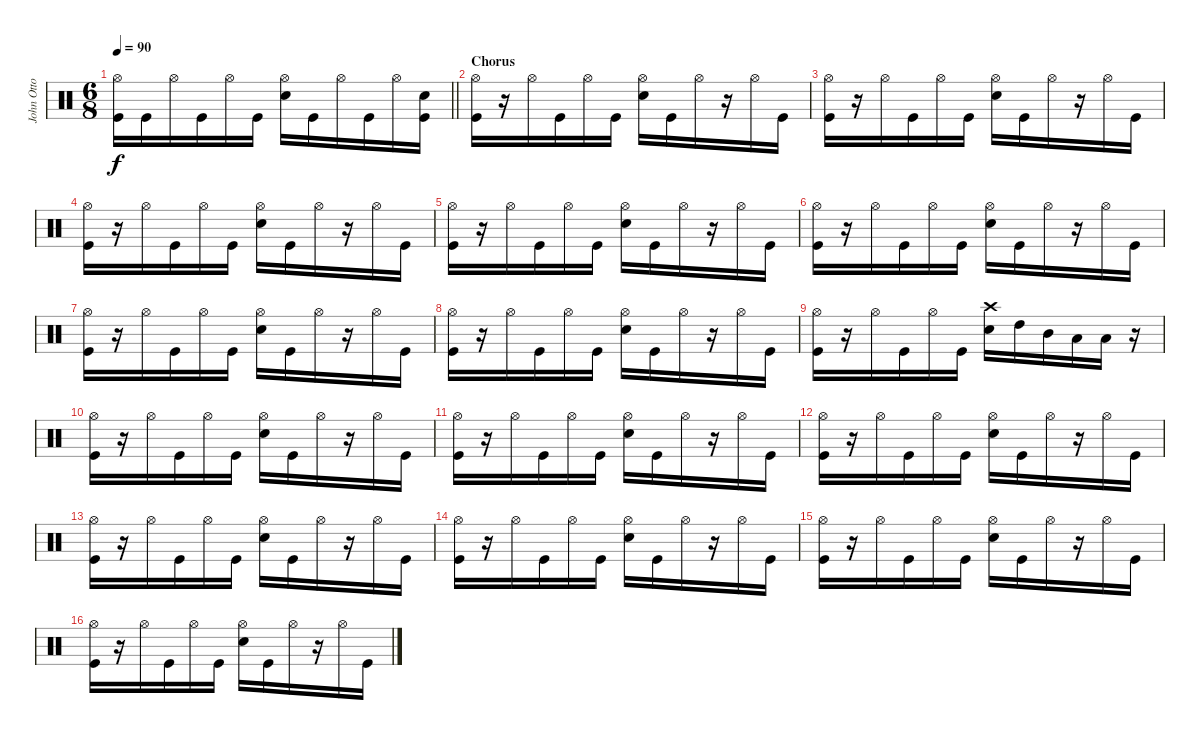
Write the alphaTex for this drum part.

\track ("John Otto" "John Otto") {instrument percussion}
\staff {score}
\articulation defaults
\ts (6 8)
\tempo 90
\clef neutral
\barLineRight lightlight
\ks c
("Hi-Hat (open)" "Kick (hit)").16{dy f} "Kick (hit)".16 "Hi-Hat (open)".16 "Kick (hit)".16 "Hi-Hat (open)".16 "Kick (hit)".16 ("Hi-Hat (open)" "Electric Snare (hit)").16 "Kick (hit)".16 "Hi-Hat (open)".16 "Kick (hit)".16 "Hi-Hat (open)".16 ("Electric Snare (hit)" "Kick (hit)").16 |
\section ("" "Chorus")
("Hi-Hat (open)" "Kick (hit)").16 r.16 "Hi-Hat (open)".16 "Kick (hit)".16 "Hi-Hat (open)".16 "Kick (hit)".16 ("Hi-Hat (open)" "Electric Snare (hit)").16 "Kick (hit)".16 "Hi-Hat (open)".16 r.16 "Hi-Hat (open)".16 "Kick (hit)".16 |
("Hi-Hat (open)" "Kick (hit)").16 r.16 "Hi-Hat (open)".16 "Kick (hit)".16 "Hi-Hat (open)".16 "Kick (hit)".16 ("Hi-Hat (open)" "Electric Snare (hit)").16 "Kick (hit)".16 "Hi-Hat (open)".16 r.16 "Hi-Hat (open)".16 "Kick (hit)".16 |
("Hi-Hat (open)" "Kick (hit)").16 r.16 "Hi-Hat (open)".16 "Kick (hit)".16 "Hi-Hat (open)".16 "Kick (hit)".16 ("Hi-Hat (open)" "Electric Snare (hit)").16 "Kick (hit)".16 "Hi-Hat (open)".16 r.16 "Hi-Hat (open)".16 "Kick (hit)".16 |
("Hi-Hat (open)" "Kick (hit)").16 r.16 "Hi-Hat (open)".16 "Kick (hit)".16 "Hi-Hat (open)".16 "Kick (hit)".16 ("Hi-Hat (open)" "Electric Snare (hit)").16 "Kick (hit)".16 "Hi-Hat (open)".16 r.16 "Hi-Hat (open)".16 "Kick (hit)".16 |
("Hi-Hat (open)" "Kick (hit)").16 r.16 "Hi-Hat (open)".16 "Kick (hit)".16 "Hi-Hat (open)".16 "Kick (hit)".16 ("Hi-Hat (open)" "Electric Snare (hit)").16 "Kick (hit)".16 "Hi-Hat (open)".16 r.16 "Hi-Hat (open)".16 "Kick (hit)".16 |
("Hi-Hat (open)" "Kick (hit)").16 r.16 "Hi-Hat (open)".16 "Kick (hit)".16 "Hi-Hat (open)".16 "Kick (hit)".16 ("Hi-Hat (open)" "Electric Snare (hit)").16 "Kick (hit)".16 "Hi-Hat (open)".16 r.16 "Hi-Hat (open)".16 "Kick (hit)".16 |
("Hi-Hat (open)" "Kick (hit)").16 r.16 "Hi-Hat (open)".16 "Kick (hit)".16 "Hi-Hat (open)".16 "Kick (hit)".16 ("Hi-Hat (open)" "Electric Snare (hit)").16 "Kick (hit)".16 "Hi-Hat (open)".16 r.16 "Hi-Hat (open)".16 "Kick (hit)".16 |
("Hi-Hat (open)" "Kick (hit)").16 r.16 "Hi-Hat (open)".16 "Kick (hit)".16 "Hi-Hat (open)".16 "Kick (hit)".16 ("Crash high (hit)" "Electric Snare (hit)").16 "High Tom (hit)".16 "Mid Tom (hit)".16 "Low Tom (hit)".16 "Low Floor Tom (hit)".16 r.16 |
("Hi-Hat (open)" "Kick (hit)").16 r.16 "Hi-Hat (open)".16 "Kick (hit)".16 "Hi-Hat (open)".16 "Kick (hit)".16 ("Hi-Hat (open)" "Electric Snare (hit)").16 "Kick (hit)".16 "Hi-Hat (open)".16 r.16 "Hi-Hat (open)".16 "Kick (hit)".16 |
("Hi-Hat (open)" "Kick (hit)").16 r.16 "Hi-Hat (open)".16 "Kick (hit)".16 "Hi-Hat (open)".16 "Kick (hit)".16 ("Hi-Hat (open)" "Electric Snare (hit)").16 "Kick (hit)".16 "Hi-Hat (open)".16 r.16 "Hi-Hat (open)".16 "Kick (hit)".16 |
("Hi-Hat (open)" "Kick (hit)").16 r.16 "Hi-Hat (open)".16 "Kick (hit)".16 "Hi-Hat (open)".16 "Kick (hit)".16 ("Hi-Hat (open)" "Electric Snare (hit)").16 "Kick (hit)".16 "Hi-Hat (open)".16 r.16 "Hi-Hat (open)".16 "Kick (hit)".16 |
("Hi-Hat (open)" "Kick (hit)").16 r.16 "Hi-Hat (open)".16 "Kick (hit)".16 "Hi-Hat (open)".16 "Kick (hit)".16 ("Hi-Hat (open)" "Electric Snare (hit)").16 "Kick (hit)".16 "Hi-Hat (open)".16 r.16 "Hi-Hat (open)".16 "Kick (hit)".16 |
("Hi-Hat (open)" "Kick (hit)").16 r.16 "Hi-Hat (open)".16 "Kick (hit)".16 "Hi-Hat (open)".16 "Kick (hit)".16 ("Hi-Hat (open)" "Electric Snare (hit)").16 "Kick (hit)".16 "Hi-Hat (open)".16 r.16 "Hi-Hat (open)".16 "Kick (hit)".16 |
("Hi-Hat (open)" "Kick (hit)").16 r.16 "Hi-Hat (open)".16 "Kick (hit)".16 "Hi-Hat (open)".16 "Kick (hit)".16 ("Hi-Hat (open)" "Electric Snare (hit)").16 "Kick (hit)".16 "Hi-Hat (open)".16 r.16 "Hi-Hat (open)".16 "Kick (hit)".16 |
("Hi-Hat (open)" "Kick (hit)").16 r.16 "Hi-Hat (open)".16 "Kick (hit)".16 "Hi-Hat (open)".16 "Kick (hit)".16 ("Hi-Hat (open)" "Electric Snare (hit)").16 "Kick (hit)".16 "Hi-Hat (open)".16 r.16 "Hi-Hat (open)".16 "Kick (hit)".16
